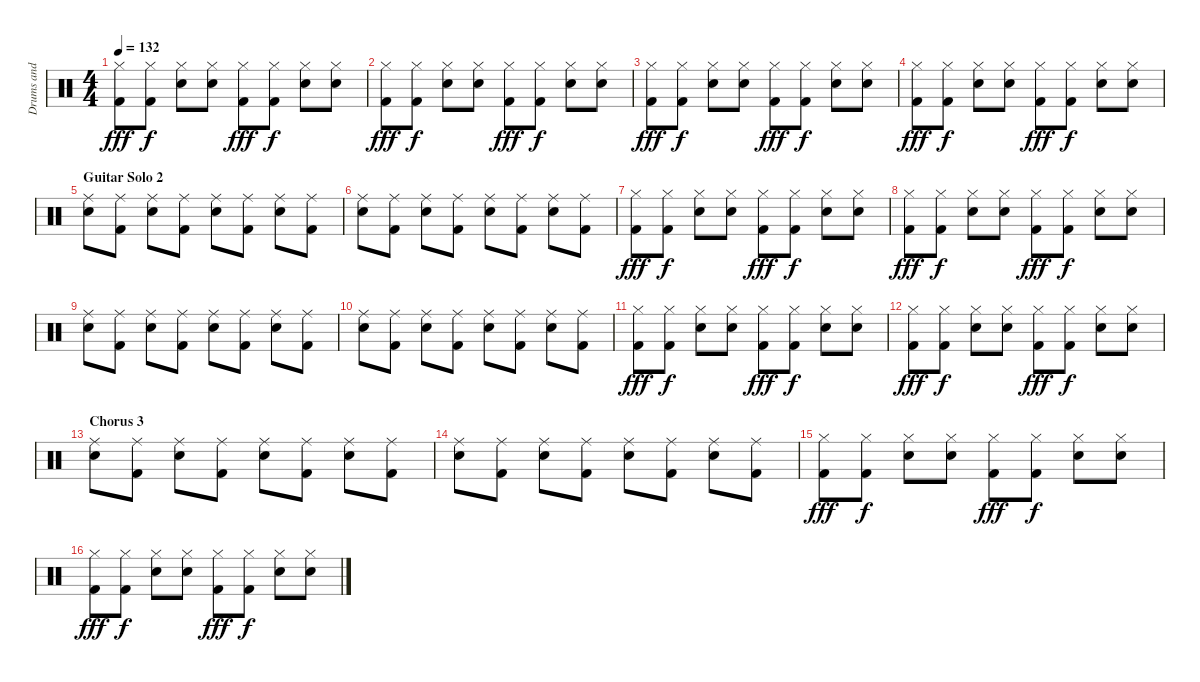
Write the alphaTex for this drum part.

\track ("Drums and Percussion" "Drums and ") {instrument percussion}
\staff {score}
\articulation defaults
\ts (4 4)
\tempo 132
\clef neutral
\ks c
("Hi-Hat (closed)" "Kick (hit) 2").8{dy fff} ("Hi-Hat (closed)" "Kick (hit) 2").8{dy f} ("Hi-Hat (closed)" "Hand Clap (hit)").8 ("Hi-Hat (closed)" "Hand Clap (hit)").8 ("Hi-Hat (closed)" "Kick (hit) 2").8{dy fff} ("Hi-Hat (closed)" "Kick (hit) 2").8{dy f} ("Hi-Hat (closed)" "Hand Clap (hit)").8 ("Hi-Hat (closed)" "Hand Clap (hit)").8 |
("Hi-Hat (closed)" "Kick (hit) 2").8{dy fff} ("Hi-Hat (closed)" "Kick (hit) 2").8{dy f} ("Hi-Hat (closed)" "Hand Clap (hit)").8 ("Hi-Hat (closed)" "Hand Clap (hit)").8 ("Hi-Hat (closed)" "Kick (hit) 2").8{dy fff} ("Hi-Hat (closed)" "Kick (hit) 2").8{dy f} ("Hi-Hat (closed)" "Hand Clap (hit)").8 ("Hi-Hat (closed)" "Hand Clap (hit)").8 |
("Hi-Hat (closed)" "Kick (hit) 2").8{dy fff} ("Hi-Hat (closed)" "Kick (hit) 2").8{dy f} ("Hi-Hat (closed)" "Hand Clap (hit)").8 ("Hi-Hat (closed)" "Hand Clap (hit)").8 ("Hi-Hat (closed)" "Kick (hit) 2").8{dy fff} ("Hi-Hat (closed)" "Kick (hit) 2").8{dy f} ("Hi-Hat (closed)" "Hand Clap (hit)").8 ("Hi-Hat (closed)" "Hand Clap (hit)").8 |
("Hi-Hat (closed)" "Kick (hit) 2").8{dy fff} ("Hi-Hat (closed)" "Kick (hit) 2").8{dy f} ("Hi-Hat (closed)" "Hand Clap (hit)").8 ("Hi-Hat (closed)" "Hand Clap (hit)").8 ("Hi-Hat (closed)" "Kick (hit) 2").8{dy fff} ("Hi-Hat (closed)" "Kick (hit) 2").8{dy f} ("Hi-Hat (closed)" "Hand Clap (hit)").8 ("Hi-Hat (closed)" "Hand Clap (hit)").8 |
\section ("" "Guitar Solo 2")
("Ride (middle)" "Electric Snare (hit)").8 ("Ride (middle)" "Kick (hit) 2").8 ("Ride (middle)" "Electric Snare (hit)").8 ("Ride (middle)" "Kick (hit) 2").8 ("Ride (middle)" "Electric Snare (hit)").8 ("Ride (middle)" "Kick (hit) 2").8 ("Ride (middle)" "Electric Snare (hit)").8 ("Ride (middle)" "Kick (hit) 2").8 |
("Ride (middle)" "Electric Snare (hit)").8 ("Ride (middle)" "Kick (hit) 2").8 ("Ride (middle)" "Electric Snare (hit)").8 ("Ride (middle)" "Kick (hit) 2").8 ("Ride (middle)" "Electric Snare (hit)").8 ("Ride (middle)" "Kick (hit) 2").8 ("Ride (middle)" "Electric Snare (hit)").8 ("Ride (middle)" "Kick (hit) 2").8 |
("Hi-Hat (closed)" "Kick (hit) 2").8{dy fff} ("Hi-Hat (closed)" "Kick (hit) 2").8{dy f} ("Hi-Hat (closed)" "Hand Clap (hit)").8 ("Hi-Hat (closed)" "Hand Clap (hit)").8 ("Hi-Hat (closed)" "Kick (hit) 2").8{dy fff} ("Hi-Hat (closed)" "Kick (hit) 2").8{dy f} ("Hi-Hat (closed)" "Hand Clap (hit)").8 ("Hi-Hat (closed)" "Hand Clap (hit)").8 |
("Hi-Hat (closed)" "Kick (hit) 2").8{dy fff} ("Hi-Hat (closed)" "Kick (hit) 2").8{dy f} ("Hi-Hat (closed)" "Hand Clap (hit)").8 ("Hi-Hat (closed)" "Hand Clap (hit)").8 ("Hi-Hat (closed)" "Kick (hit) 2").8{dy fff} ("Hi-Hat (closed)" "Kick (hit) 2").8{dy f} ("Hi-Hat (closed)" "Hand Clap (hit)").8 ("Hi-Hat (closed)" "Hand Clap (hit)").8 |
("Ride (middle)" "Electric Snare (hit)").8 ("Ride (middle)" "Kick (hit) 2").8 ("Ride (middle)" "Electric Snare (hit)").8 ("Ride (middle)" "Kick (hit) 2").8 ("Ride (middle)" "Electric Snare (hit)").8 ("Ride (middle)" "Kick (hit) 2").8 ("Ride (middle)" "Electric Snare (hit)").8 ("Ride (middle)" "Kick (hit) 2").8 |
("Ride (middle)" "Electric Snare (hit)").8 ("Ride (middle)" "Kick (hit) 2").8 ("Ride (middle)" "Electric Snare (hit)").8 ("Ride (middle)" "Kick (hit) 2").8 ("Ride (middle)" "Electric Snare (hit)").8 ("Ride (middle)" "Kick (hit) 2").8 ("Ride (middle)" "Electric Snare (hit)").8 ("Ride (middle)" "Kick (hit) 2").8 |
("Hi-Hat (closed)" "Kick (hit) 2").8{dy fff} ("Hi-Hat (closed)" "Kick (hit) 2").8{dy f} ("Hi-Hat (closed)" "Hand Clap (hit)").8 ("Hi-Hat (closed)" "Hand Clap (hit)").8 ("Hi-Hat (closed)" "Kick (hit) 2").8{dy fff} ("Hi-Hat (closed)" "Kick (hit) 2").8{dy f} ("Hi-Hat (closed)" "Hand Clap (hit)").8 ("Hi-Hat (closed)" "Hand Clap (hit)").8 |
("Hi-Hat (closed)" "Kick (hit) 2").8{dy fff} ("Hi-Hat (closed)" "Kick (hit) 2").8{dy f} ("Hi-Hat (closed)" "Hand Clap (hit)").8 ("Hi-Hat (closed)" "Hand Clap (hit)").8 ("Hi-Hat (closed)" "Kick (hit) 2").8{dy fff} ("Hi-Hat (closed)" "Kick (hit) 2").8{dy f} ("Hi-Hat (closed)" "Hand Clap (hit)").8 ("Hi-Hat (closed)" "Hand Clap (hit)").8 |
\section ("" "Chorus 3")
("Ride (middle)" "Electric Snare (hit)").8 ("Ride (middle)" "Kick (hit) 2").8 ("Ride (middle)" "Electric Snare (hit)").8 ("Ride (middle)" "Kick (hit) 2").8 ("Ride (middle)" "Electric Snare (hit)").8 ("Ride (middle)" "Kick (hit) 2").8 ("Ride (middle)" "Electric Snare (hit)").8 ("Ride (middle)" "Kick (hit) 2").8 |
("Ride (middle)" "Electric Snare (hit)").8 ("Ride (middle)" "Kick (hit) 2").8 ("Ride (middle)" "Electric Snare (hit)").8 ("Ride (middle)" "Kick (hit) 2").8 ("Ride (middle)" "Electric Snare (hit)").8 ("Ride (middle)" "Kick (hit) 2").8 ("Ride (middle)" "Electric Snare (hit)").8 ("Ride (middle)" "Kick (hit) 2").8 |
("Hi-Hat (closed)" "Kick (hit) 2").8{dy fff} ("Hi-Hat (closed)" "Kick (hit) 2").8{dy f} ("Hi-Hat (closed)" "Hand Clap (hit)").8 ("Hi-Hat (closed)" "Hand Clap (hit)").8 ("Hi-Hat (closed)" "Kick (hit) 2").8{dy fff} ("Hi-Hat (closed)" "Kick (hit) 2").8{dy f} ("Hi-Hat (closed)" "Hand Clap (hit)").8 ("Hi-Hat (closed)" "Hand Clap (hit)").8 |
("Hi-Hat (closed)" "Kick (hit) 2").8{dy fff} ("Hi-Hat (closed)" "Kick (hit) 2").8{dy f} ("Hi-Hat (closed)" "Hand Clap (hit)").8 ("Hi-Hat (closed)" "Hand Clap (hit)").8 ("Hi-Hat (closed)" "Kick (hit) 2").8{dy fff} ("Hi-Hat (closed)" "Kick (hit) 2").8{dy f} ("Hi-Hat (closed)" "Hand Clap (hit)").8 ("Hi-Hat (closed)" "Hand Clap (hit)").8
